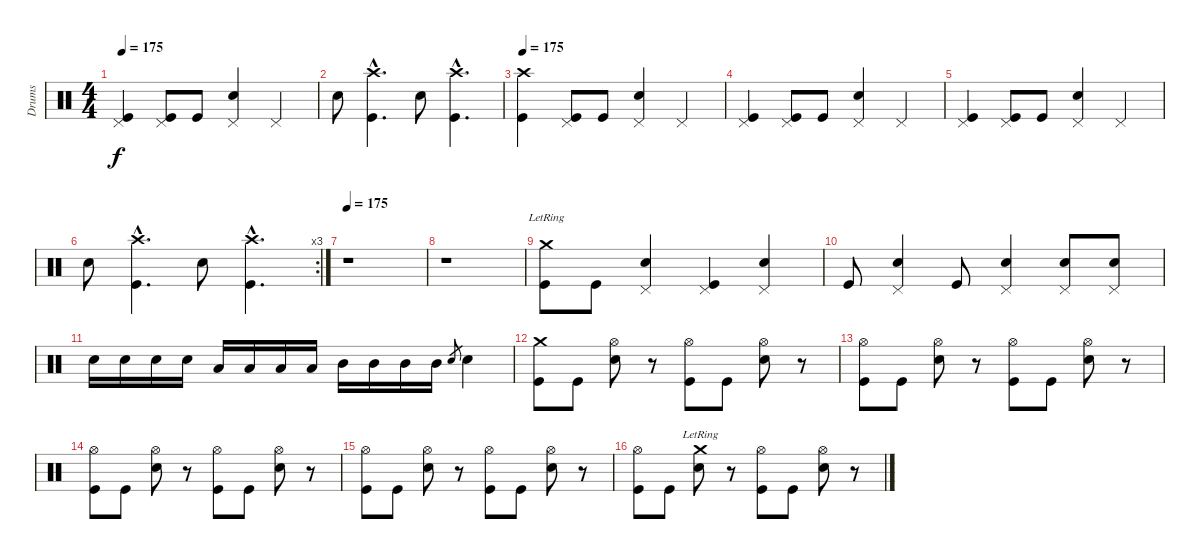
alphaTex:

\track ("Drums" "Drums") {instrument percussion}
\staff {score}
\articulation defaults
\ts (4 4)
\tempo 175
\clef neutral
\ks c
("Pedal Hi-Hat (hit)" "Kick (hit)").4{dy f} ("Pedal Hi-Hat (hit)" "Kick (hit)").8 "Kick (hit)".8 ("Pedal Hi-Hat (hit)" "Snare (hit) 2").4 "Pedal Hi-Hat (hit)".4 |
"Snare (hit) 2".8 ("Crash high (hit)"{hac} "Kick (hit)"{hac}).4{d} "Snare (hit) 2".8 ("Crash high (hit)"{hac} "Kick (hit)"{hac}).4{d} |
\tempo 175
("Crash high (hit)" "Kick (hit)").4 ("Pedal Hi-Hat (hit)" "Kick (hit)").8 "Kick (hit)".8 ("Pedal Hi-Hat (hit)" "Snare (hit) 2").4 "Pedal Hi-Hat (hit)".4 |
("Pedal Hi-Hat (hit)" "Kick (hit)").4 ("Pedal Hi-Hat (hit)" "Kick (hit)").8 "Kick (hit)".8 ("Pedal Hi-Hat (hit)" "Snare (hit) 2").4 "Pedal Hi-Hat (hit)".4 |
("Pedal Hi-Hat (hit)" "Kick (hit)").4 ("Pedal Hi-Hat (hit)" "Kick (hit)").8 "Kick (hit)".8 ("Pedal Hi-Hat (hit)" "Snare (hit) 2").4 "Pedal Hi-Hat (hit)".4 |
\rc 3 "Snare (hit) 2".8
("Crash high (hit)"{hac} "Kick (hit)"{hac}).4{d} "Snare (hit) 2".8 ("Crash high (hit)"{hac} "Kick (hit)"{hac}).4{d} |
\tempo 175
r.1 |
r.1 |
("Crash medium (hit)"{lr} "Kick (hit)").8 "Kick (hit)".8 ("Pedal Hi-Hat (hit)" "Snare (hit) 2").4 ("Pedal Hi-Hat (hit)" "Kick (hit)").4 ("Pedal Hi-Hat (hit)" "Snare (hit) 2").4 |
"Kick (hit)".8 ("Pedal Hi-Hat (hit)" "Snare (hit) 2").4 "Kick (hit)".8 ("Pedal Hi-Hat (hit)" "Snare (hit) 2").4 ("Pedal Hi-Hat (hit)" "Snare (hit) 2").8 ("Pedal Hi-Hat (hit)" "Snare (hit) 2").8 |
"Snare (hit) 2".16 "Snare (hit) 2".16 "Snare (hit) 2".16 "Snare (hit) 2".16 "Low Tom (hit)".16 "Low Tom (hit)".16 "Low Tom (hit)".16 "Low Tom (hit)".16 "Mid Tom (hit)".16 "Mid Tom (hit)".16 "Mid Tom (hit)".16 "Mid Tom (hit)".16 "Snare (hit) 2".8{gr} "Snare (hit) 2".4 |
("Crash medium (hit)" "Kick (hit)").8 "Kick (hit)".8 ("Hi-Hat (open)" "Snare (hit) 2").8 r.8 ("Hi-Hat (open)" "Kick (hit)").8 "Kick (hit)".8 ("Hi-Hat (open)" "Snare (hit) 2").8 r.8 |
("Hi-Hat (open)" "Kick (hit)").8 "Kick (hit)".8 ("Hi-Hat (open)" "Snare (hit) 2").8 r.8 ("Hi-Hat (open)" "Kick (hit)").8 "Kick (hit)".8 ("Hi-Hat (open)" "Snare (hit) 2").8 r.8 |
("Hi-Hat (open)" "Kick (hit)").8 "Kick (hit)".8 ("Hi-Hat (open)" "Snare (hit) 2").8 r.8 ("Hi-Hat (open)" "Kick (hit)").8 "Kick (hit)".8 ("Hi-Hat (open)" "Snare (hit) 2").8 r.8 |
("Hi-Hat (open)" "Kick (hit)").8 "Kick (hit)".8 ("Hi-Hat (open)" "Snare (hit) 2").8 r.8 ("Hi-Hat (open)" "Kick (hit)").8 "Kick (hit)".8 ("Hi-Hat (open)" "Snare (hit) 2").8 r.8 |
("Hi-Hat (open)" "Kick (hit)").8 "Kick (hit)".8 ("Crash medium (hit)"{lr} "Snare (hit) 2").8 r.8 ("Hi-Hat (open)" "Kick (hit)").8 "Kick (hit)".8 ("Hi-Hat (open)" "Snare (hit) 2").8 r.8
